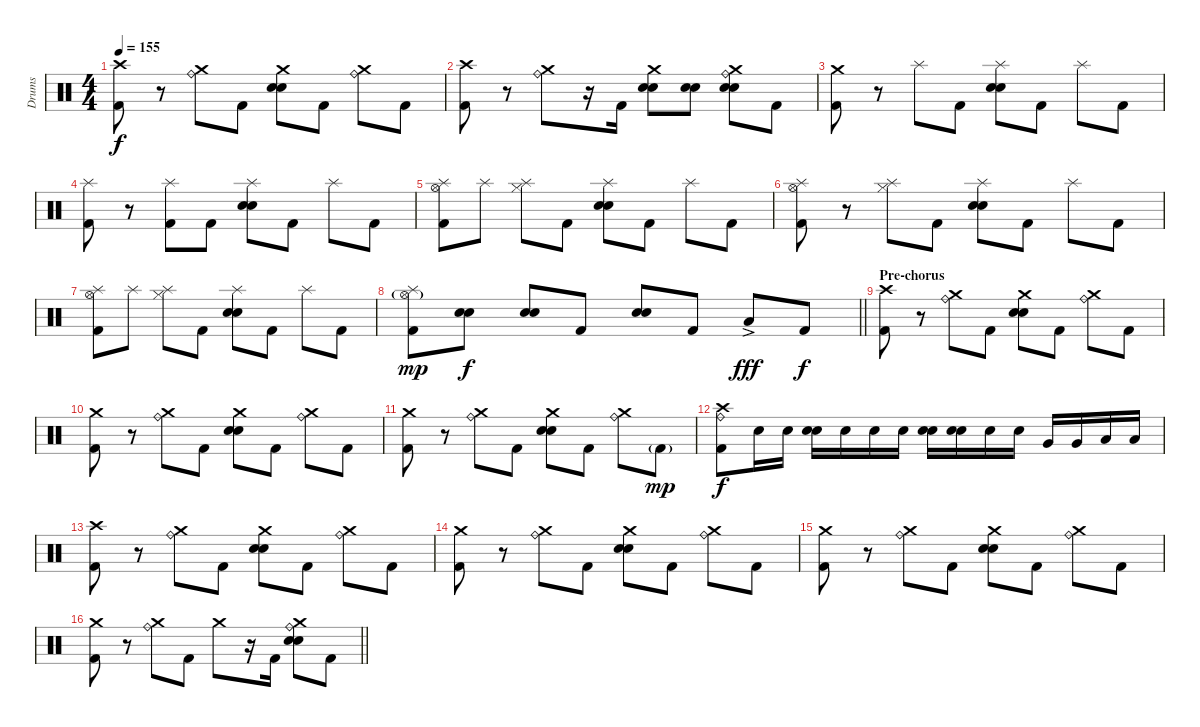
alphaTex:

\track ("Drums" "Drums") {instrument percussion}
\staff {score}
\articulation defaults
\ts (4 4)
\section ("" "")
\tempo 155
\clef neutral
\ks c
("Crash high (hit)" "Kick (hit) 2").8{dy f} r.8 ("Crash medium (hit)" "Ride (bell)").8 "Kick (hit) 2".8 ("Crash medium (hit)" "Snare (hit) 2" "Electric Snare (hit)").8 "Kick (hit) 2".8 ("Crash medium (hit)" "Ride (bell)").8 "Kick (hit) 2".8 |
("Crash high (hit)" "Kick (hit) 2").8 r.8 ("Crash medium (hit)" "Ride (bell)").8 r.16 "Kick (hit) 2".16 ("Crash medium (hit)" "Snare (hit) 2" "Electric Snare (hit)").8 ("Snare (hit) 2" "Electric Snare (hit)").8 ("Crash medium (hit)" "Ride (bell)" "Snare (hit) 2" "Electric Snare (hit)").8 "Kick (hit) 2".8 |
("Crash medium (hit)" "Kick (hit) 2").8 r.8 "Splash (hit)".8 "Kick (hit) 2".8 ("Splash (hit)" "Snare (hit) 2" "Electric Snare (hit)").8 "Kick (hit) 2".8 "Splash (hit)".8 "Kick (hit) 2".8 |
("Splash (hit)" "Kick (hit) 2").8 r.8 ("Splash (hit)" "Kick (hit) 2").8 "Kick (hit) 2".8 ("Splash (hit)" "Snare (hit) 2" "Electric Snare (hit)").8 "Kick (hit) 2".8 "Splash (hit)".8 "Kick (hit) 2".8 |
("Splash (hit)" "Hi-Hat (open)" "Kick (hit) 2").8 "Splash (hit)".8 ("Splash (hit)" "Hi-Hat (closed)").8 "Kick (hit) 2".8 ("Splash (hit)" "Snare (hit) 2" "Electric Snare (hit)").8 "Kick (hit) 2".8 "Splash (hit)".8 "Kick (hit) 2".8 |
("Splash (hit)" "Hi-Hat (open)" "Kick (hit) 2").8 r.8 ("Splash (hit)" "Hi-Hat (closed)").8 "Kick (hit) 2".8 ("Splash (hit)" "Snare (hit) 2" "Electric Snare (hit)").8 "Kick (hit) 2".8 "Splash (hit)".8 "Kick (hit) 2".8 |
("Splash (hit)" "Hi-Hat (open)" "Kick (hit) 2").8 "Splash (hit)".8 ("Splash (hit)" "Hi-Hat (closed)").8 "Kick (hit) 2".8 ("Splash (hit)" "Snare (hit) 2" "Electric Snare (hit)").8 "Kick (hit) 2".8 "Splash (hit)".8 "Kick (hit) 2".8 |
\barLineRight lightlight
("Splash (hit)" "Hi-Hat (open)"{g} "Kick (hit) 2").8{dy mp} ("Snare (hit) 2" "Electric Snare (hit)").8{dy f} ("Snare (hit) 2" "Electric Snare (hit)").8 "Kick (hit) 2".8 ("Snare (hit) 2" "Electric Snare (hit)").8 "Kick (hit) 2".8 "Low Floor Tom (hit)"{ac}.8{dy fff} "Kick (hit) 2".8{dy f} |
\section ("" "Pre-chorus")
("Crash high (hit)" "Kick (hit) 2").8 r.8 ("Crash medium (hit)" "Ride (bell)").8 "Kick (hit) 2".8 ("Crash medium (hit)" "Snare (hit) 2" "Electric Snare (hit)").8 "Kick (hit) 2".8 ("Crash medium (hit)" "Ride (bell)").8 "Kick (hit) 2".8 |
("Crash medium (hit)" "Kick (hit) 2").8 r.8 ("Crash medium (hit)" "Ride (bell)").8 "Kick (hit) 2".8 ("Crash medium (hit)" "Snare (hit) 2" "Electric Snare (hit)").8 "Kick (hit) 2".8 ("Crash medium (hit)" "Ride (bell)").8 "Kick (hit) 2".8 |
("Crash medium (hit)" "Kick (hit) 2").8 r.8 ("Crash medium (hit)" "Ride (bell)").8 "Kick (hit) 2".8 ("Crash medium (hit)" "Snare (hit) 2" "Electric Snare (hit)").8 "Kick (hit) 2".8 ("Crash medium (hit)" "Ride (bell)").8 "Kick (hit) 2"{g}.8{dy mp} |
("Crash high (hit)" "Ride (bell)" "Kick (hit) 2").8{dy f} "Snare (hit) 2".16 "Snare (hit) 2".16 ("Electric Snare (hit)" "Snare (hit) 2").16 "Snare (hit) 2".16 "Snare (hit) 2".16 "Snare (hit) 2".16 ("Electric Snare (hit)" "Snare (hit) 2").16 ("Electric Snare (hit)" "Snare (hit) 2").16 "Snare (hit) 2".16 "Snare (hit) 2".16 "Very Low Tom (hit)".16 "Very Low Tom (hit)".16 "Low Floor Tom (hit)".16 "Low Floor Tom (hit)".16 |
("Crash high (hit)" "Kick (hit) 2").8 r.8 ("Crash medium (hit)" "Ride (bell)").8 "Kick (hit) 2".8 ("Crash medium (hit)" "Snare (hit) 2" "Electric Snare (hit)").8 "Kick (hit) 2".8 ("Crash medium (hit)" "Ride (bell)").8 "Kick (hit) 2".8 |
("Crash medium (hit)" "Kick (hit) 2").8 r.8 ("Crash medium (hit)" "Ride (bell)").8 "Kick (hit) 2".8 ("Crash medium (hit)" "Snare (hit) 2" "Electric Snare (hit)").8 "Kick (hit) 2".8 ("Crash medium (hit)" "Ride (bell)").8 "Kick (hit) 2".8 |
("Crash medium (hit)" "Kick (hit) 2").8 r.8 ("Crash medium (hit)" "Ride (bell)").8 "Kick (hit) 2".8 ("Crash medium (hit)" "Snare (hit) 2" "Electric Snare (hit)").8 "Kick (hit) 2".8 ("Crash medium (hit)" "Ride (bell)").8 "Kick (hit) 2".8 |
\barLineRight lightlight
("Crash medium (hit)" "Kick (hit) 2").8 r.8 ("Crash medium (hit)" "Ride (bell)").8 "Kick (hit) 2".8 "Crash medium (hit)".8 r.16 "Kick (hit) 2".16 ("Crash medium (hit)" "Ride (bell)" "Snare (hit) 2" "Electric Snare (hit)").8 "Kick (hit) 2".8
